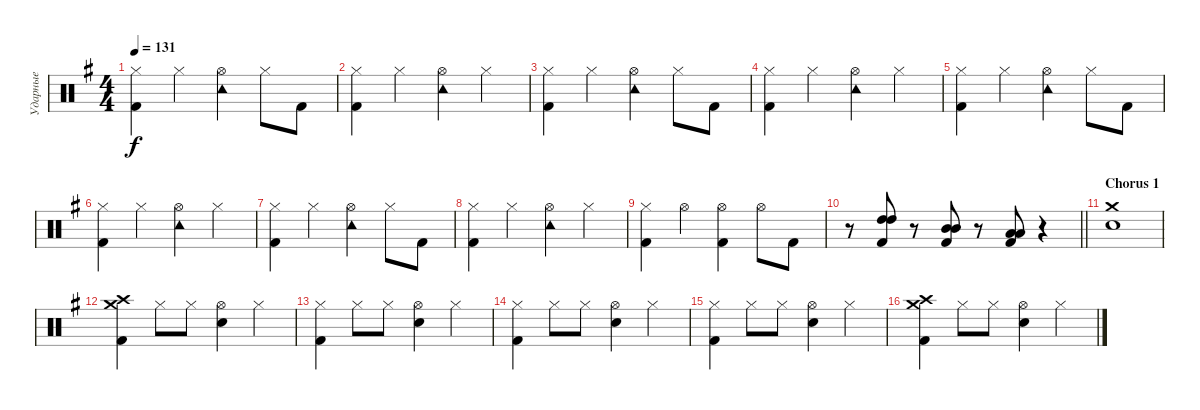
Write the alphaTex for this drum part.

\track ("Ударные" "Ударные") {instrument percussion}
\staff {score}
\articulation defaults
\ts (4 4)
\tempo 131
\clef neutral
\ks eminor
("Hi-Hat (closed)" "Kick (hit) 2").4{dy f} "Hi-Hat (closed)".4 ("Tambourine (hit)" "Hi-Hat (open)").4 "Hi-Hat (closed)".8 "Kick (hit) 2".8 |
("Hi-Hat (closed)" "Kick (hit) 2").4 "Hi-Hat (closed)".4 ("Tambourine (hit)" "Hi-Hat (open)").4 "Hi-Hat (closed)".4 |
("Hi-Hat (closed)" "Kick (hit) 2").4 "Hi-Hat (closed)".4 ("Tambourine (hit)" "Hi-Hat (open)").4 "Hi-Hat (closed)".8 "Kick (hit) 2".8 |
("Hi-Hat (closed)" "Kick (hit) 2").4 "Hi-Hat (closed)".4 ("Tambourine (hit)" "Hi-Hat (open)").4 "Hi-Hat (closed)".4 |
("Hi-Hat (closed)" "Kick (hit) 2").4 "Hi-Hat (closed)".4 ("Tambourine (hit)" "Hi-Hat (open)").4 "Hi-Hat (closed)".8 "Kick (hit) 2".8 |
("Hi-Hat (closed)" "Kick (hit) 2").4 "Hi-Hat (closed)".4 ("Tambourine (hit)" "Hi-Hat (open)").4 "Hi-Hat (closed)".4 |
("Hi-Hat (closed)" "Kick (hit) 2").4 "Hi-Hat (closed)".4 ("Tambourine (hit)" "Hi-Hat (open)").4 "Hi-Hat (closed)".8 "Kick (hit) 2".8 |
("Hi-Hat (closed)" "Kick (hit) 2").4 "Hi-Hat (closed)".4 ("Tambourine (hit)" "Hi-Hat (open)").4 "Hi-Hat (closed)".4 |
("Hi-Hat (closed)" "Kick (hit) 2").4 "Hi-Hat (open)".4 ("Hi-Hat (open)" "Kick (hit) 2").4 "Hi-Hat (open)".8 "Kick (hit) 2".8 |
\barLineRight lightlight
r.8 ("High Tom (hit)" "High Tom (hit)" "Kick (hit) 2").8 r.8 ("Mid Tom (hit)" "Mid Tom (hit)" "Kick (hit) 2").8 r.8 ("Low Tom (hit)" "Low Tom (hit)" "Kick (hit) 2").8 r.4 |
\section ("" "Chorus 1")
("Snare (hit) 2" "Crash medium (hit)").1 |
("Crash medium (hit)" "Crash high (hit)" "Kick (hit) 2").4 "Hi-Hat (closed)".8 "Hi-Hat (closed)".8 ("Hi-Hat (open)" "Snare (hit) 2").4 "Hi-Hat (closed)".4 |
("Hi-Hat (closed)" "Kick (hit) 2").4 "Hi-Hat (closed)".8 "Hi-Hat (closed)".8 ("Hi-Hat (open)" "Snare (hit) 2").4 "Hi-Hat (closed)".4 |
("Hi-Hat (closed)" "Kick (hit) 2").4 "Hi-Hat (closed)".8 "Hi-Hat (closed)".8 ("Hi-Hat (open)" "Snare (hit) 2").4 "Hi-Hat (closed)".4 |
("Hi-Hat (closed)" "Kick (hit) 2").4 "Hi-Hat (closed)".8 "Hi-Hat (closed)".8 ("Hi-Hat (open)" "Snare (hit) 2").4 "Hi-Hat (closed)".4 |
("Crash medium (hit)" "Crash high (hit)" "Kick (hit) 2").4 "Hi-Hat (closed)".8 "Hi-Hat (closed)".8 ("Hi-Hat (open)" "Snare (hit) 2").4 "Hi-Hat (closed)".4
